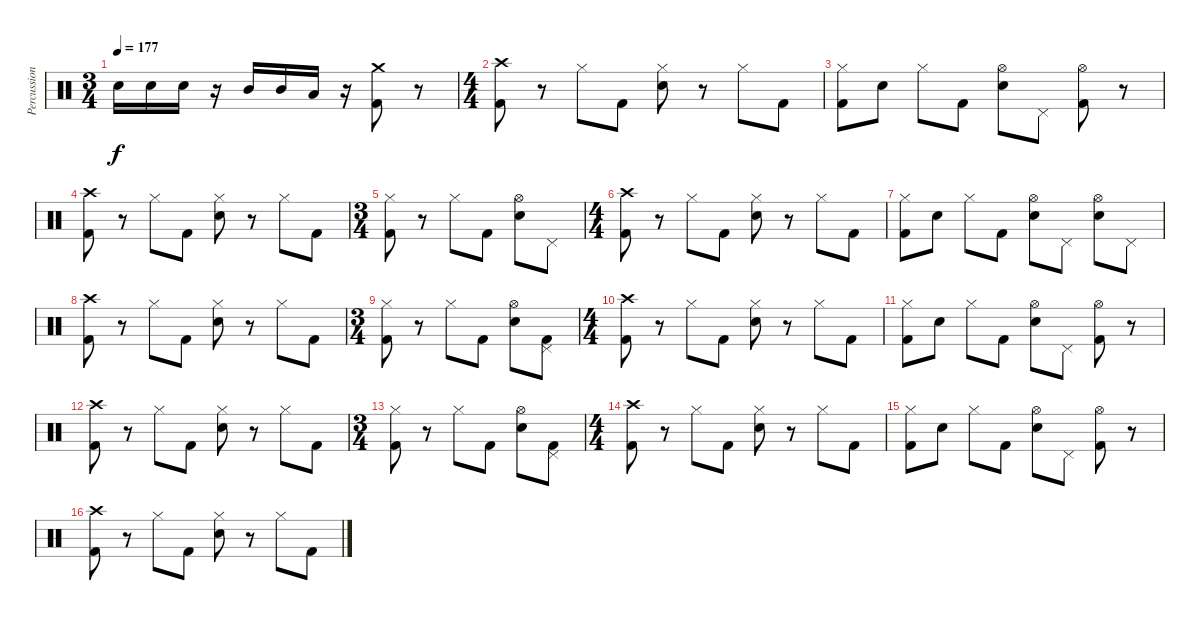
\track ("Percussion" "Percussion") {instrument percussion}
\staff {score}
\articulation defaults
\ts (3 4)
\tempo 177
\clef neutral
\ks c "Electric Snare (hit)".16{dy f} "Electric Snare (hit)".16 "Electric Snare (hit)".16
r.16 "Mid Tom (hit)".16 "Mid Tom (hit)".16 "Low Tom (hit)".16 r.16 ("Crash medium (hit)" "Kick (hit) 2").8 r.8 |
\ts (4 4)
("Crash high (hit)" "Kick (hit) 2").8 r.8 "Hi-Hat (closed)".8 "Kick (hit) 2".8 ("Hi-Hat (closed)" "Electric Snare (hit)").8 r.8 "Hi-Hat (closed)".8 "Kick (hit) 2".8 |
("Hi-Hat (closed)" "Kick (hit) 2").8 "Electric Snare (hit)".8 "Hi-Hat (closed)".8 "Kick (hit) 2".8 ("Hi-Hat (open)" "Electric Snare (hit)").8 "Pedal Hi-Hat (hit)".8 ("Hi-Hat (open)" "Kick (hit) 2").8 r.8 |
("Crash high (hit)" "Kick (hit) 2").8 r.8 "Hi-Hat (closed)".8 "Kick (hit) 2".8 ("Hi-Hat (closed)" "Electric Snare (hit)").8 r.8 "Hi-Hat (closed)".8 "Kick (hit) 2".8 |
\ts (3 4)
("Hi-Hat (closed)" "Kick (hit) 2").8 r.8 "Hi-Hat (closed)".8 "Kick (hit) 2".8 ("Hi-Hat (open)" "Electric Snare (hit)").8 "Pedal Hi-Hat (hit)".8 |
\ts (4 4)
("Crash high (hit)" "Kick (hit) 2").8 r.8 "Hi-Hat (closed)".8 "Kick (hit) 2".8 ("Hi-Hat (closed)" "Electric Snare (hit)").8 r.8 "Hi-Hat (closed)".8 "Kick (hit) 2".8 |
("Hi-Hat (closed)" "Kick (hit) 2").8 "Electric Snare (hit)".8 "Hi-Hat (closed)".8 "Kick (hit) 2".8 ("Hi-Hat (open)" "Electric Snare (hit)").8 "Pedal Hi-Hat (hit)".8 ("Hi-Hat (open)" "Electric Snare (hit)").8 "Pedal Hi-Hat (hit)".8 |
("Crash high (hit)" "Kick (hit) 2").8 r.8 "Hi-Hat (closed)".8 "Kick (hit) 2".8 ("Hi-Hat (closed)" "Electric Snare (hit)").8 r.8 "Hi-Hat (closed)".8 "Kick (hit) 2".8 |
\ts (3 4)
("Hi-Hat (closed)" "Kick (hit) 2").8 r.8 "Hi-Hat (closed)".8 "Kick (hit) 2".8 ("Hi-Hat (open)" "Electric Snare (hit)").8 ("Pedal Hi-Hat (hit)" "Kick (hit) 2").8 |
\ts (4 4)
("Crash high (hit)" "Kick (hit) 2").8 r.8 "Hi-Hat (closed)".8 "Kick (hit) 2".8 ("Hi-Hat (closed)" "Electric Snare (hit)").8 r.8 "Hi-Hat (closed)".8 "Kick (hit) 2".8 |
("Hi-Hat (closed)" "Kick (hit) 2").8 "Electric Snare (hit)".8 "Hi-Hat (closed)".8 "Kick (hit) 2".8 ("Hi-Hat (open)" "Electric Snare (hit)").8 "Pedal Hi-Hat (hit)".8 ("Hi-Hat (open)" "Kick (hit) 2").8 r.8 |
("Crash high (hit)" "Kick (hit) 2").8 r.8 "Hi-Hat (closed)".8 "Kick (hit) 2".8 ("Hi-Hat (closed)" "Electric Snare (hit)").8 r.8 "Hi-Hat (closed)".8 "Kick (hit) 2".8 |
\ts (3 4)
("Hi-Hat (closed)" "Kick (hit) 2").8 r.8 "Hi-Hat (closed)".8 "Kick (hit) 2".8 ("Hi-Hat (open)" "Electric Snare (hit)").8 ("Pedal Hi-Hat (hit)" "Kick (hit) 2").8 |
\ts (4 4)
("Crash high (hit)" "Kick (hit) 2").8 r.8 "Hi-Hat (closed)".8 "Kick (hit) 2".8 ("Hi-Hat (closed)" "Electric Snare (hit)").8 r.8 "Hi-Hat (closed)".8 "Kick (hit) 2".8 |
("Hi-Hat (closed)" "Kick (hit) 2").8 "Electric Snare (hit)".8 "Hi-Hat (closed)".8 "Kick (hit) 2".8 ("Hi-Hat (open)" "Electric Snare (hit)").8 "Pedal Hi-Hat (hit)".8 ("Hi-Hat (open)" "Kick (hit) 2").8 r.8 |
("Crash high (hit)" "Kick (hit) 2").8 r.8 "Hi-Hat (closed)".8 "Kick (hit) 2".8 ("Hi-Hat (closed)" "Electric Snare (hit)").8 r.8 "Hi-Hat (closed)".8 "Kick (hit) 2".8
